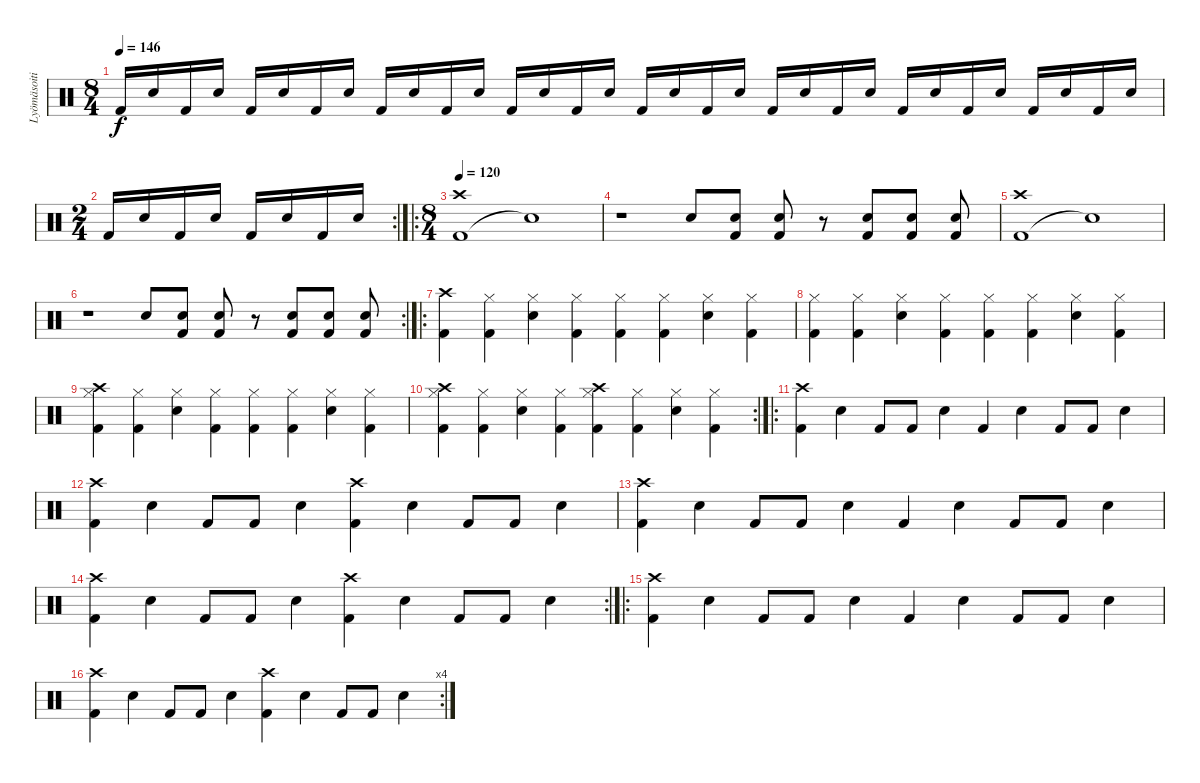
\track ("Lyömäsoitin" "Lyömäsoiti") {instrument percussion}
\staff {score}
\articulation defaults
\ts (8 4)
\tempo 146
\clef neutral
\ks c "Kick (hit) 2".16{dy f} "Snare (hit) 2".16 "Kick (hit) 2".16 "Snare (hit) 2".16 "Kick (hit) 2".16 "Snare (hit) 2".16 "Kick (hit) 2".16 "Snare (hit) 2".16 "Kick (hit) 2".16 "Snare (hit) 2".16 "Kick (hit) 2".16 "Snare (hit) 2".16 "Kick (hit) 2".16 "Snare (hit) 2".16 "Kick (hit) 2".16 "Snare (hit) 2".16 "Kick (hit) 2".16 "Snare (hit) 2".16 "Kick (hit) 2".16 "Snare (hit) 2".16 "Kick (hit) 2".16 "Snare (hit) 2".16 "Kick (hit) 2".16 "Snare (hit) 2".16 "Kick (hit) 2".16 "Snare (hit) 2".16 "Kick (hit) 2".16 "Snare (hit) 2".16 "Kick (hit) 2".16 "Snare (hit) 2".16 "Kick (hit) 2".16 "Snare (hit) 2".16
|
\rc 2
\ts (2 4)
"Kick (hit) 2".16 "Snare (hit) 2".16 "Kick (hit) 2".16 "Snare (hit) 2".16 "Kick (hit) 2".16 "Snare (hit) 2".16 "Kick (hit) 2".16 "Snare (hit) 2".16 |
\ro
\ts (8 4)
\tempo 120
("Kick (hit) 2" "Crash high (hit)").1 "Snare (hit)"{t}.1 |
r.1 "Snare (hit) 2".8 ("Snare (hit) 2" "Kick (hit) 2").8 ("Snare (hit) 2" "Kick (hit) 2").8 r.8 ("Snare (hit) 2" "Kick (hit) 2").8 ("Snare (hit) 2" "Kick (hit) 2").8 ("Snare (hit) 2" "Kick (hit) 2").8 |
("Kick (hit) 2" "Crash high (hit)").1 "Snare (hit)"{t}.1 |
\rc 2
r.1 "Snare (hit) 2".8 ("Snare (hit) 2" "Kick (hit) 2").8 ("Snare (hit) 2" "Kick (hit) 2").8 r.8 ("Snare (hit) 2" "Kick (hit) 2").8 ("Snare (hit) 2" "Kick (hit) 2").8 ("Snare (hit) 2" "Kick (hit) 2").8 |
\ro
("Crash high (hit)" "Kick (hit) 2").4 ("Hi-Hat (closed)" "Kick (hit) 2").4 ("Hi-Hat (closed)" "Snare (hit) 2").4 ("Hi-Hat (closed)" "Kick (hit) 2").4 ("Hi-Hat (closed)" "Kick (hit) 2").4 ("Hi-Hat (closed)" "Kick (hit) 2").4 ("Hi-Hat (closed)" "Snare (hit) 2").4 ("Hi-Hat (closed)" "Kick (hit) 2").4 |
("Hi-Hat (closed)" "Kick (hit) 2").4 ("Hi-Hat (closed)" "Kick (hit) 2").4 ("Hi-Hat (closed)" "Snare (hit) 2").4 ("Hi-Hat (closed)" "Kick (hit) 2").4 ("Hi-Hat (closed)" "Kick (hit) 2").4 ("Hi-Hat (closed)" "Kick (hit) 2").4 ("Hi-Hat (closed)" "Snare (hit) 2").4 ("Hi-Hat (closed)" "Kick (hit) 2").4 |
("Hi-Hat (closed)" "Crash high (hit)" "Kick (hit) 2").4 ("Hi-Hat (closed)" "Kick (hit) 2").4 ("Hi-Hat (closed)" "Snare (hit) 2").4 ("Hi-Hat (closed)" "Kick (hit) 2").4 ("Hi-Hat (closed)" "Kick (hit) 2").4 ("Hi-Hat (closed)" "Kick (hit) 2").4 ("Hi-Hat (closed)" "Snare (hit) 2").4 ("Hi-Hat (closed)" "Kick (hit) 2").4 |
\rc 2
("Hi-Hat (closed)" "Crash high (hit)" "Kick (hit) 2").4 ("Hi-Hat (closed)" "Kick (hit) 2").4 ("Hi-Hat (closed)" "Snare (hit) 2").4 ("Hi-Hat (closed)" "Kick (hit) 2").4 ("Hi-Hat (closed)" "Crash high (hit)" "Kick (hit) 2").4 ("Hi-Hat (closed)" "Kick (hit) 2").4 ("Hi-Hat (closed)" "Snare (hit) 2").4 ("Hi-Hat (closed)" "Kick (hit) 2").4 |
\ro
("Crash high (hit)" "Kick (hit) 2").4 "Snare (hit) 2".4 "Kick (hit) 2".8 "Kick (hit) 2".8 "Snare (hit) 2".4 "Kick (hit) 2".4 "Snare (hit) 2".4 "Kick (hit) 2".8 "Kick (hit) 2".8 "Snare (hit) 2".4 |
("Crash high (hit)" "Kick (hit) 2").4 "Snare (hit) 2".4 "Kick (hit) 2".8 "Kick (hit) 2".8 "Snare (hit) 2".4 ("Crash high (hit)" "Kick (hit) 2").4 "Snare (hit) 2".4 "Kick (hit) 2".8 "Kick (hit) 2".8 "Snare (hit) 2".4 |
("Crash high (hit)" "Kick (hit) 2").4 "Snare (hit) 2".4 "Kick (hit) 2".8 "Kick (hit) 2".8 "Snare (hit) 2".4 "Kick (hit) 2".4 "Snare (hit) 2".4 "Kick (hit) 2".8 "Kick (hit) 2".8 "Snare (hit) 2".4 |
\rc 2
("Crash high (hit)" "Kick (hit) 2").4 "Snare (hit) 2".4 "Kick (hit) 2".8 "Kick (hit) 2".8 "Snare (hit) 2".4 ("Crash high (hit)" "Kick (hit) 2").4 "Snare (hit) 2".4 "Kick (hit) 2".8 "Kick (hit) 2".8 "Snare (hit) 2".4 |
\ro
("Crash high (hit)" "Kick (hit) 2").4 "Snare (hit) 2".4 "Kick (hit) 2".8 "Kick (hit) 2".8 "Snare (hit) 2".4 "Kick (hit) 2".4 "Snare (hit) 2".4 "Kick (hit) 2".8 "Kick (hit) 2".8 "Snare (hit) 2".4 |
\rc 4
("Crash high (hit)" "Kick (hit) 2").4 "Snare (hit) 2".4 "Kick (hit) 2".8 "Kick (hit) 2".8 "Snare (hit) 2".4 ("Crash high (hit)" "Kick (hit) 2").4 "Snare (hit) 2".4 "Kick (hit) 2".8 "Kick (hit) 2".8 "Snare (hit) 2".4
